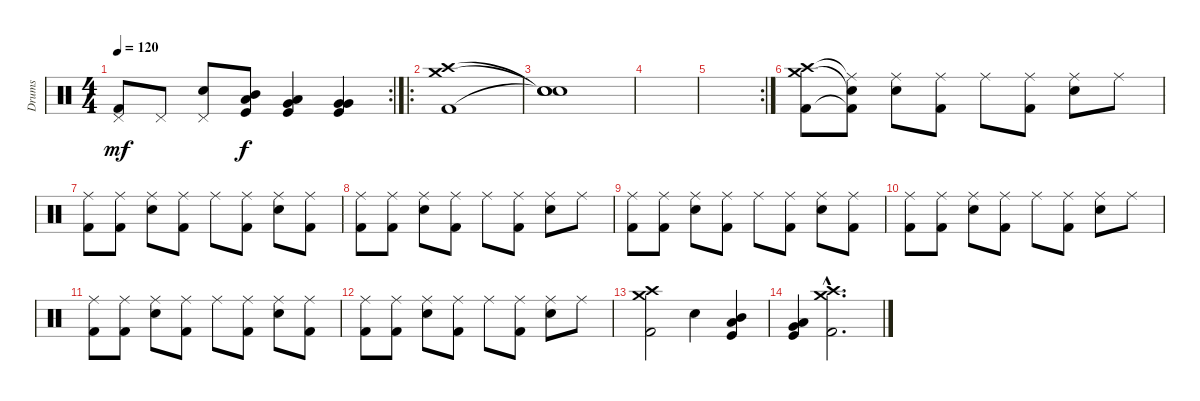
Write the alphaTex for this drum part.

\track ("Drums" "Drums") {instrument percussion}
\staff {score}
\articulation defaults
\rc 2
\ts (4 4)
\tempo 120
\clef neutral
\ks c
("Pedal Hi-Hat (hit)" "Kick (hit) 2").8{dy mf} "Pedal Hi-Hat (hit)".8 ("Pedal Hi-Hat (hit)" "Electric Snare (hit)").8 ("Mid Tom (hit)" "Low Tom (hit)" "Kick (hit)").8{dy f} ("Low Tom (hit)" "Very Low Tom (hit)" "Kick (hit)").4 ("Very Low Tom (hit)" "Very Low Tom (hit)" "Kick (hit)").4 |
\ro
("Crash high (hit)" "Crash medium (hit)" "Kick (hit) 2").1{volume 0} |
("Snare (hit)"{t} "Snare (hit)"{t} "Snare (hit)"{t}).1 |
|
\rc 2
|
("Crash high (hit)" "Crash medium (hit)" "Kick (hit) 2").8{volume 13} ("Ride (middle)"{t} "Snare (hit)"{t} "Kick (hit) 2"{t}).8 ("Ride (middle)" "Electric Snare (hit)").8 ("Ride (middle)" "Kick (hit) 2").8 "Ride (middle)".8 ("Ride (middle)" "Kick (hit) 2").8 ("Ride (middle)" "Electric Snare (hit)").8 "Ride (middle)".8 |
("Ride (middle)" "Kick (hit) 2").8 ("Ride (middle)" "Kick (hit) 2").8 ("Ride (middle)" "Electric Snare (hit)").8 ("Ride (middle)" "Kick (hit) 2").8 "Ride (middle)".8 ("Ride (middle)" "Kick (hit) 2").8 ("Ride (middle)" "Electric Snare (hit)").8 ("Ride (middle)" "Kick (hit) 2").8 |
("Ride (middle)" "Kick (hit) 2").8 ("Ride (middle)" "Kick (hit) 2").8 ("Ride (middle)" "Electric Snare (hit)").8 ("Ride (middle)" "Kick (hit) 2").8 "Ride (middle)".8 ("Ride (middle)" "Kick (hit) 2").8 ("Ride (middle)" "Electric Snare (hit)").8 "Ride (middle)".8 |
("Ride (middle)" "Kick (hit) 2").8 ("Ride (middle)" "Kick (hit) 2").8 ("Ride (middle)" "Electric Snare (hit)").8 ("Ride (middle)" "Kick (hit) 2").8 "Ride (middle)".8 ("Ride (middle)" "Kick (hit) 2").8 ("Ride (middle)" "Electric Snare (hit)").8 ("Ride (middle)" "Kick (hit) 2").8 |
("Ride (middle)" "Kick (hit) 2").8 ("Ride (middle)" "Kick (hit) 2").8 ("Ride (middle)" "Electric Snare (hit)").8 ("Ride (middle)" "Kick (hit) 2").8 "Ride (middle)".8 ("Ride (middle)" "Kick (hit) 2").8 ("Ride (middle)" "Electric Snare (hit)").8 "Ride (middle)".8 |
("Ride (middle)" "Kick (hit) 2").8 ("Ride (middle)" "Kick (hit) 2").8 ("Ride (middle)" "Electric Snare (hit)").8 ("Ride (middle)" "Kick (hit) 2").8 "Ride (middle)".8 ("Ride (middle)" "Kick (hit) 2").8 ("Ride (middle)" "Electric Snare (hit)").8 ("Ride (middle)" "Kick (hit) 2").8 |
("Ride (middle)" "Kick (hit) 2").8 ("Ride (middle)" "Kick (hit) 2").8 ("Ride (middle)" "Electric Snare (hit)").8 ("Ride (middle)" "Kick (hit) 2").8 "Ride (middle)".8 ("Ride (middle)" "Kick (hit) 2").8 ("Ride (middle)" "Electric Snare (hit)").8 "Ride (middle)".8 |
("Crash high (hit)" "Crash medium (hit)" "Kick (hit) 2").2 "Electric Snare (hit)".4 ("Kick (hit)" "Mid Tom (hit)" "Low Tom (hit)").4 |
("Kick (hit)" "Low Tom (hit)" "Very Low Tom (hit)").4 ("Crash high (hit)"{hac} "Crash medium (hit)"{hac} "Kick (hit) 2"{hac}).2{d}
